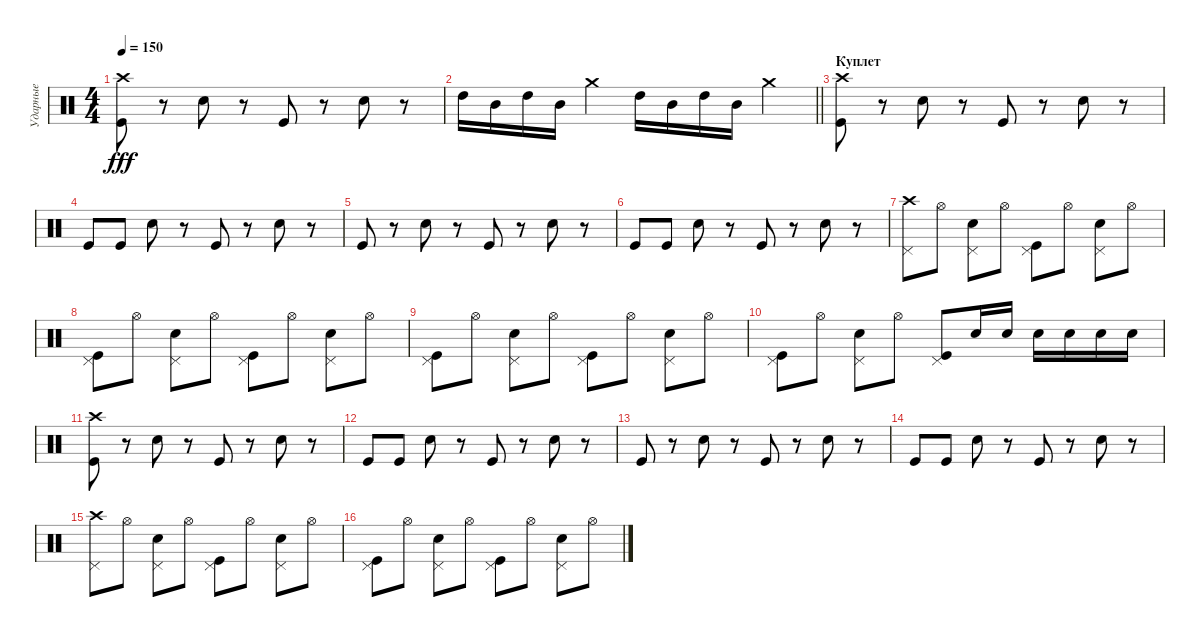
\track ("Ударные" "Ударные") {instrument percussion}
\staff {score}
\articulation defaults
\ts (4 4)
\tempo 150
\clef neutral
\ks c
("Crash high (hit)" "Kick (hit)").8{dy fff} r.8 "Electric Snare (hit)".8 r.8 "Kick (hit)".8 r.8 "Electric Snare (hit)".8 r.8 |
\barLineRight lightlight "High Tom (hit)".16 "Mid Tom (hit)".16 "High Tom (hit)".16 "Mid Tom (hit)".16 "Crash medium (hit)".4 "High Tom (hit)".16 "Mid Tom (hit)".16 "High Tom (hit)".16 "Mid Tom (hit)".16 "Crash medium (hit)".4
|
\section ("" "Куплет")
("Crash high (hit)" "Kick (hit)").8 r.8 "Electric Snare (hit)".8 r.8 "Kick (hit)".8 r.8 "Electric Snare (hit)".8 r.8 |
"Kick (hit)".8 "Kick (hit)".8 "Electric Snare (hit)".8 r.8 "Kick (hit)".8 r.8 "Electric Snare (hit)".8 r.8 |
"Kick (hit)".8 r.8 "Electric Snare (hit)".8 r.8 "Kick (hit)".8 r.8 "Electric Snare (hit)".8 r.8 |
"Kick (hit)".8 "Kick (hit)".8 "Electric Snare (hit)".8 r.8 "Kick (hit)".8 r.8 "Electric Snare (hit)".8 r.8 |
("Crash high (hit)" "Pedal Hi-Hat (hit)").8 "Hi-Hat (open)".8 ("Electric Snare (hit)" "Pedal Hi-Hat (hit)").8 "Hi-Hat (open)".8 ("Kick (hit)" "Pedal Hi-Hat (hit)").8 "Hi-Hat (open)".8 ("Electric Snare (hit)" "Pedal Hi-Hat (hit)").8 "Hi-Hat (open)".8 |
("Kick (hit)" "Pedal Hi-Hat (hit)").8 "Hi-Hat (open)".8 ("Electric Snare (hit)" "Pedal Hi-Hat (hit)").8 "Hi-Hat (open)".8 ("Kick (hit)" "Pedal Hi-Hat (hit)").8 "Hi-Hat (open)".8 ("Electric Snare (hit)" "Pedal Hi-Hat (hit)").8 "Hi-Hat (open)".8 |
("Kick (hit)" "Pedal Hi-Hat (hit)").8 "Hi-Hat (open)".8 ("Electric Snare (hit)" "Pedal Hi-Hat (hit)").8 "Hi-Hat (open)".8 ("Kick (hit)" "Pedal Hi-Hat (hit)").8 "Hi-Hat (open)".8 ("Electric Snare (hit)" "Pedal Hi-Hat (hit)").8 "Hi-Hat (open)".8 |
("Kick (hit)" "Pedal Hi-Hat (hit)").8 "Hi-Hat (open)".8 ("Electric Snare (hit)" "Pedal Hi-Hat (hit)").8 "Hi-Hat (open)".8 ("Kick (hit)" "Pedal Hi-Hat (hit)").8 "Electric Snare (hit)".16 "Electric Snare (hit)".16 "Electric Snare (hit)".16 "Electric Snare (hit)".16 "Electric Snare (hit)".16 "Electric Snare (hit)".16 |
("Crash high (hit)" "Kick (hit)").8 r.8 "Electric Snare (hit)".8 r.8 "Kick (hit)".8 r.8 "Electric Snare (hit)".8 r.8 |
"Kick (hit)".8 "Kick (hit)".8 "Electric Snare (hit)".8 r.8 "Kick (hit)".8 r.8 "Electric Snare (hit)".8 r.8 |
"Kick (hit)".8 r.8 "Electric Snare (hit)".8 r.8 "Kick (hit)".8 r.8 "Electric Snare (hit)".8 r.8 |
"Kick (hit)".8 "Kick (hit)".8 "Electric Snare (hit)".8 r.8 "Kick (hit)".8 r.8 "Electric Snare (hit)".8 r.8 |
("Crash high (hit)" "Pedal Hi-Hat (hit)").8 "Hi-Hat (open)".8 ("Electric Snare (hit)" "Pedal Hi-Hat (hit)").8 "Hi-Hat (open)".8 ("Kick (hit)" "Pedal Hi-Hat (hit)").8 "Hi-Hat (open)".8 ("Electric Snare (hit)" "Pedal Hi-Hat (hit)").8 "Hi-Hat (open)".8 |
("Kick (hit)" "Pedal Hi-Hat (hit)").8 "Hi-Hat (open)".8 ("Electric Snare (hit)" "Pedal Hi-Hat (hit)").8 "Hi-Hat (open)".8 ("Kick (hit)" "Pedal Hi-Hat (hit)").8 "Hi-Hat (open)".8 ("Electric Snare (hit)" "Pedal Hi-Hat (hit)").8 "Hi-Hat (open)".8
